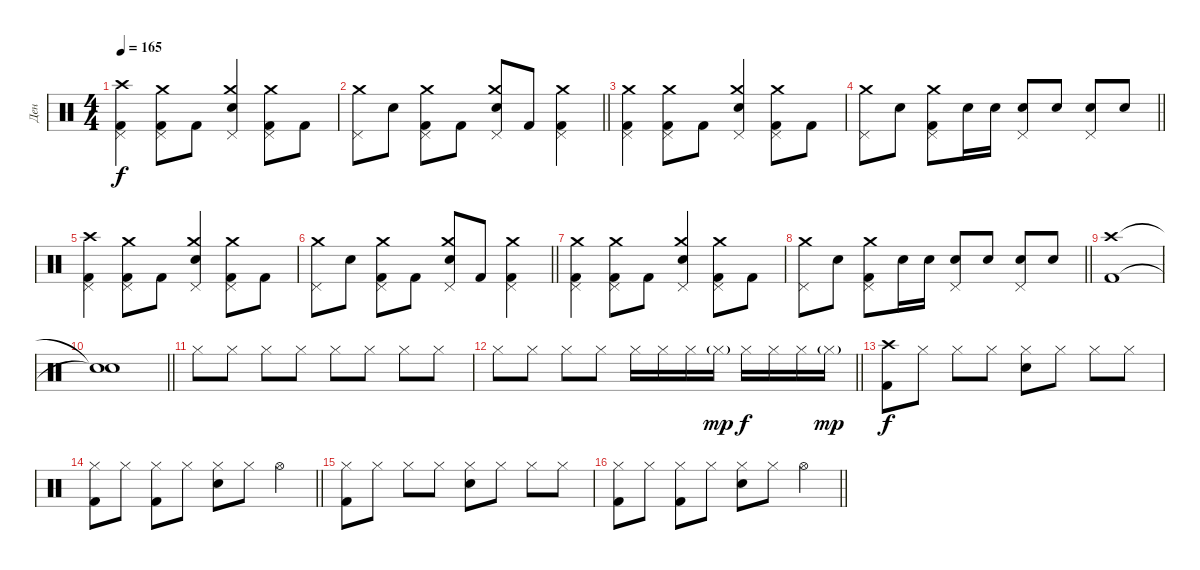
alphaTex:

\track ("Ден" "Ден") {instrument percussion}
\staff {score}
\articulation defaults
\ts (4 4)
\tempo 165
\clef neutral
\ks c
("Crash high (hit)" "Kick (hit) 2" "Pedal Hi-Hat (hit)").4{dy f} ("Crash medium (hit)" "Kick (hit) 2" "Pedal Hi-Hat (hit)").8 "Kick (hit) 2".8 ("Crash medium (hit)" "Snare (hit) 2" "Pedal Hi-Hat (hit)").4 ("Crash medium (hit)" "Kick (hit) 2" "Pedal Hi-Hat (hit)").8 "Kick (hit) 2".8 |
\barLineRight lightlight
("Crash medium (hit)" "Pedal Hi-Hat (hit)").8 "Snare (hit) 2".8 ("Crash medium (hit)" "Kick (hit) 2" "Pedal Hi-Hat (hit)").8 "Kick (hit) 2".8 ("Crash medium (hit)" "Snare (hit) 2" "Pedal Hi-Hat (hit)").8 "Kick (hit) 2".8 ("Crash medium (hit)" "Kick (hit) 2" "Pedal Hi-Hat (hit)").4 |
("Crash medium (hit)" "Kick (hit) 2" "Pedal Hi-Hat (hit)").4 ("Crash medium (hit)" "Kick (hit) 2" "Pedal Hi-Hat (hit)").8 "Kick (hit) 2".8 ("Crash medium (hit)" "Snare (hit) 2" "Pedal Hi-Hat (hit)").4 ("Crash medium (hit)" "Kick (hit) 2" "Pedal Hi-Hat (hit)").8 "Kick (hit) 2".8 |
\barLineRight lightlight
("Crash medium (hit)" "Pedal Hi-Hat (hit)").8 "Snare (hit) 2".8 ("Crash medium (hit)" "Kick (hit) 2" "Pedal Hi-Hat (hit)").8 "Snare (hit) 2".16 "Snare (hit) 2".16 ("Snare (hit) 2" "Pedal Hi-Hat (hit)").8 "Snare (hit) 2".8 ("Snare (hit) 2" "Pedal Hi-Hat (hit)").8 "Snare (hit) 2".8 |
("Crash high (hit)" "Kick (hit) 2" "Pedal Hi-Hat (hit)").4 ("Crash medium (hit)" "Kick (hit) 2" "Pedal Hi-Hat (hit)").8 "Kick (hit) 2".8 ("Crash medium (hit)" "Snare (hit) 2" "Pedal Hi-Hat (hit)").4 ("Crash medium (hit)" "Kick (hit) 2" "Pedal Hi-Hat (hit)").8 "Kick (hit) 2".8 |
\barLineRight lightlight
("Crash medium (hit)" "Pedal Hi-Hat (hit)").8 "Snare (hit) 2".8 ("Crash medium (hit)" "Kick (hit) 2" "Pedal Hi-Hat (hit)").8 "Kick (hit) 2".8 ("Crash medium (hit)" "Snare (hit) 2" "Pedal Hi-Hat (hit)").8 "Kick (hit) 2".8 ("Crash medium (hit)" "Kick (hit) 2" "Pedal Hi-Hat (hit)").4 |
("Crash medium (hit)" "Kick (hit) 2" "Pedal Hi-Hat (hit)").4 ("Crash medium (hit)" "Kick (hit) 2" "Pedal Hi-Hat (hit)").8 "Kick (hit) 2".8 ("Crash medium (hit)" "Snare (hit) 2" "Pedal Hi-Hat (hit)").4 ("Crash medium (hit)" "Kick (hit) 2" "Pedal Hi-Hat (hit)").8 "Kick (hit) 2".8 |
\barLineRight lightlight
("Crash medium (hit)" "Pedal Hi-Hat (hit)").8 "Snare (hit) 2".8 ("Crash medium (hit)" "Kick (hit) 2" "Pedal Hi-Hat (hit)").8 "Snare (hit) 2".16 "Snare (hit) 2".16 ("Snare (hit) 2" "Pedal Hi-Hat (hit)").8 "Snare (hit) 2".8 ("Snare (hit) 2" "Pedal Hi-Hat (hit)").8 "Snare (hit) 2".8 |
("Crash high (hit)" "Kick (hit) 2").1 |
\barLineRight lightlight
("Snare (hit)"{t} "Snare (hit)"{t}).1 |
"Hi-Hat (closed)".8 "Hi-Hat (closed)".8 "Hi-Hat (closed)".8 "Hi-Hat (closed)".8 "Hi-Hat (closed)".8 "Hi-Hat (closed)".8 "Hi-Hat (closed)".8 "Hi-Hat (closed)".8 |
\barLineRight lightlight "Hi-Hat (closed)".8 "Hi-Hat (closed)".8 "Hi-Hat (closed)".8 "Hi-Hat (closed)".8 "Hi-Hat (closed)".16 "Hi-Hat (closed)".16 "Hi-Hat (closed)".16 "Hi-Hat (closed)"{g}.16{dy mp} "Hi-Hat (closed)".16{dy f} "Hi-Hat (closed)".16 "Hi-Hat (closed)".16 "Hi-Hat (closed)"{g}.16{dy mp}
|
("Crash high (hit)" "Kick (hit) 2").8{dy f} "Hi-Hat (closed)".8 "Hi-Hat (closed)".8 "Hi-Hat (closed)".8 ("Hi-Hat (closed)" "Snare (hit) 2").8 "Hi-Hat (closed)".8 "Hi-Hat (closed)".8 "Hi-Hat (closed)".8 |
\barLineRight lightlight
("Hi-Hat (closed)" "Kick (hit) 2").8 "Hi-Hat (closed)".8 ("Hi-Hat (closed)" "Kick (hit) 2").8 "Hi-Hat (closed)".8 ("Hi-Hat (closed)" "Snare (hit) 2").8 "Hi-Hat (closed)".8 "Hi-Hat (open)".4 |
("Hi-Hat (closed)" "Kick (hit) 2").8 "Hi-Hat (closed)".8 "Hi-Hat (closed)".8 "Hi-Hat (closed)".8 ("Hi-Hat (closed)" "Snare (hit) 2").8 "Hi-Hat (closed)".8 "Hi-Hat (closed)".8 "Hi-Hat (closed)".8 |
\barLineRight lightlight
("Hi-Hat (closed)" "Kick (hit) 2").8 "Hi-Hat (closed)".8 ("Hi-Hat (closed)" "Kick (hit) 2").8 "Hi-Hat (closed)".8 ("Hi-Hat (closed)" "Snare (hit) 2").8 "Hi-Hat (closed)".8 "Hi-Hat (open)".4
